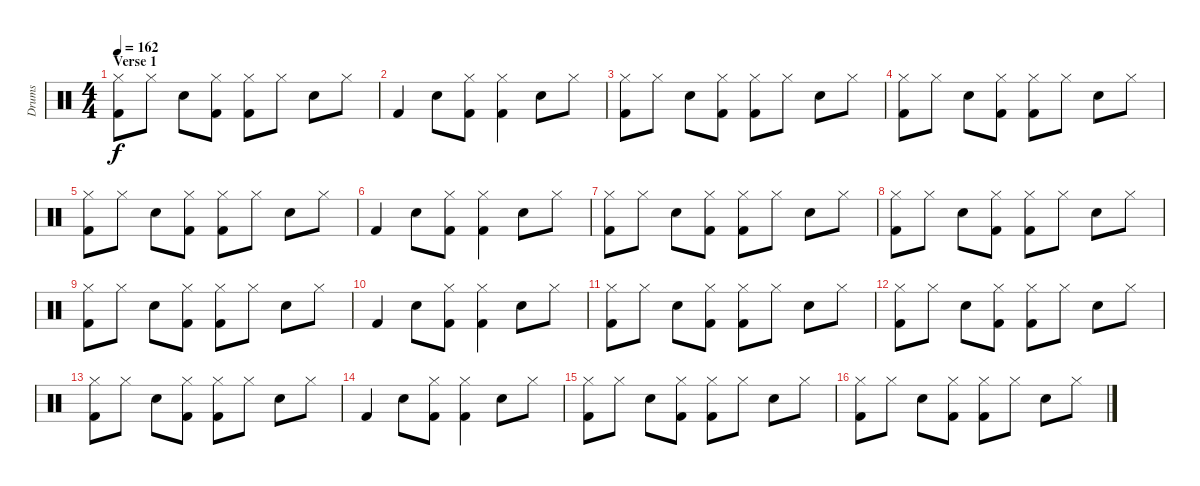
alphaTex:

\track ("Drums" "Drums") {instrument percussion}
\staff {score}
\articulation defaults
\ts (4 4)
\section ("" "Verse 1")
\tempo 162
\clef neutral
\ks c
("Hi-Hat (closed)" "Kick (hit) 2").8{dy f} "Hi-Hat (closed)".8 "Snare (hit) 2".8 ("Hi-Hat (closed)" "Kick (hit) 2").8 ("Hi-Hat (closed)" "Kick (hit) 2").8 "Hi-Hat (closed)".8 "Snare (hit) 2".8 "Hi-Hat (closed)".8 |
"Kick (hit) 2".4 "Snare (hit) 2".8 ("Hi-Hat (closed)" "Kick (hit) 2").8 ("Hi-Hat (closed)" "Kick (hit) 2").4 "Snare (hit) 2".8 "Hi-Hat (closed)".8 |
("Hi-Hat (closed)" "Kick (hit) 2").8 "Hi-Hat (closed)".8 "Snare (hit) 2".8 ("Hi-Hat (closed)" "Kick (hit) 2").8 ("Hi-Hat (closed)" "Kick (hit) 2").8 "Hi-Hat (closed)".8 "Snare (hit) 2".8 "Hi-Hat (closed)".8 |
("Hi-Hat (closed)" "Kick (hit) 2").8 "Hi-Hat (closed)".8 "Snare (hit) 2".8 ("Hi-Hat (closed)" "Kick (hit) 2").8 ("Hi-Hat (closed)" "Kick (hit) 2").8 "Hi-Hat (closed)".8 "Snare (hit) 2".8 "Hi-Hat (closed)".8 |
("Hi-Hat (closed)" "Kick (hit) 2").8 "Hi-Hat (closed)".8 "Snare (hit) 2".8 ("Hi-Hat (closed)" "Kick (hit) 2").8 ("Hi-Hat (closed)" "Kick (hit) 2").8 "Hi-Hat (closed)".8 "Snare (hit) 2".8 "Hi-Hat (closed)".8 |
"Kick (hit) 2".4 "Snare (hit) 2".8 ("Hi-Hat (closed)" "Kick (hit) 2").8 ("Hi-Hat (closed)" "Kick (hit) 2").4 "Snare (hit) 2".8 "Hi-Hat (closed)".8 |
("Hi-Hat (closed)" "Kick (hit) 2").8 "Hi-Hat (closed)".8 "Snare (hit) 2".8 ("Hi-Hat (closed)" "Kick (hit) 2").8 ("Hi-Hat (closed)" "Kick (hit) 2").8 "Hi-Hat (closed)".8 "Snare (hit) 2".8 "Hi-Hat (closed)".8 |
("Hi-Hat (closed)" "Kick (hit) 2").8 "Hi-Hat (closed)".8 "Snare (hit) 2".8 ("Hi-Hat (closed)" "Kick (hit) 2").8 ("Hi-Hat (closed)" "Kick (hit) 2").8 "Hi-Hat (closed)".8 "Snare (hit) 2".8 "Hi-Hat (closed)".8 |
("Hi-Hat (closed)" "Kick (hit) 2").8 "Hi-Hat (closed)".8 "Snare (hit) 2".8 ("Hi-Hat (closed)" "Kick (hit) 2").8 ("Hi-Hat (closed)" "Kick (hit) 2").8 "Hi-Hat (closed)".8 "Snare (hit) 2".8 "Hi-Hat (closed)".8 |
"Kick (hit) 2".4 "Snare (hit) 2".8 ("Hi-Hat (closed)" "Kick (hit) 2").8 ("Hi-Hat (closed)" "Kick (hit) 2").4 "Snare (hit) 2".8 "Hi-Hat (closed)".8 |
("Hi-Hat (closed)" "Kick (hit) 2").8 "Hi-Hat (closed)".8 "Snare (hit) 2".8 ("Hi-Hat (closed)" "Kick (hit) 2").8 ("Hi-Hat (closed)" "Kick (hit) 2").8 "Hi-Hat (closed)".8 "Snare (hit) 2".8 "Hi-Hat (closed)".8 |
("Hi-Hat (closed)" "Kick (hit) 2").8 "Hi-Hat (closed)".8 "Snare (hit) 2".8 ("Hi-Hat (closed)" "Kick (hit) 2").8 ("Hi-Hat (closed)" "Kick (hit) 2").8 "Hi-Hat (closed)".8 "Snare (hit) 2".8 "Hi-Hat (closed)".8 |
("Hi-Hat (closed)" "Kick (hit) 2").8 "Hi-Hat (closed)".8 "Snare (hit) 2".8 ("Hi-Hat (closed)" "Kick (hit) 2").8 ("Hi-Hat (closed)" "Kick (hit) 2").8 "Hi-Hat (closed)".8 "Snare (hit) 2".8 "Hi-Hat (closed)".8 |
"Kick (hit) 2".4 "Snare (hit) 2".8 ("Hi-Hat (closed)" "Kick (hit) 2").8 ("Hi-Hat (closed)" "Kick (hit) 2").4 "Snare (hit) 2".8 "Hi-Hat (closed)".8 |
("Hi-Hat (closed)" "Kick (hit) 2").8 "Hi-Hat (closed)".8 "Snare (hit) 2".8 ("Hi-Hat (closed)" "Kick (hit) 2").8 ("Hi-Hat (closed)" "Kick (hit) 2").8 "Hi-Hat (closed)".8 "Snare (hit) 2".8 "Hi-Hat (closed)".8 |
("Hi-Hat (closed)" "Kick (hit) 2").8 "Hi-Hat (closed)".8 "Snare (hit) 2".8 ("Hi-Hat (closed)" "Kick (hit) 2").8 ("Hi-Hat (closed)" "Kick (hit) 2").8 "Hi-Hat (closed)".8 "Snare (hit) 2".8 "Hi-Hat (closed)".8
